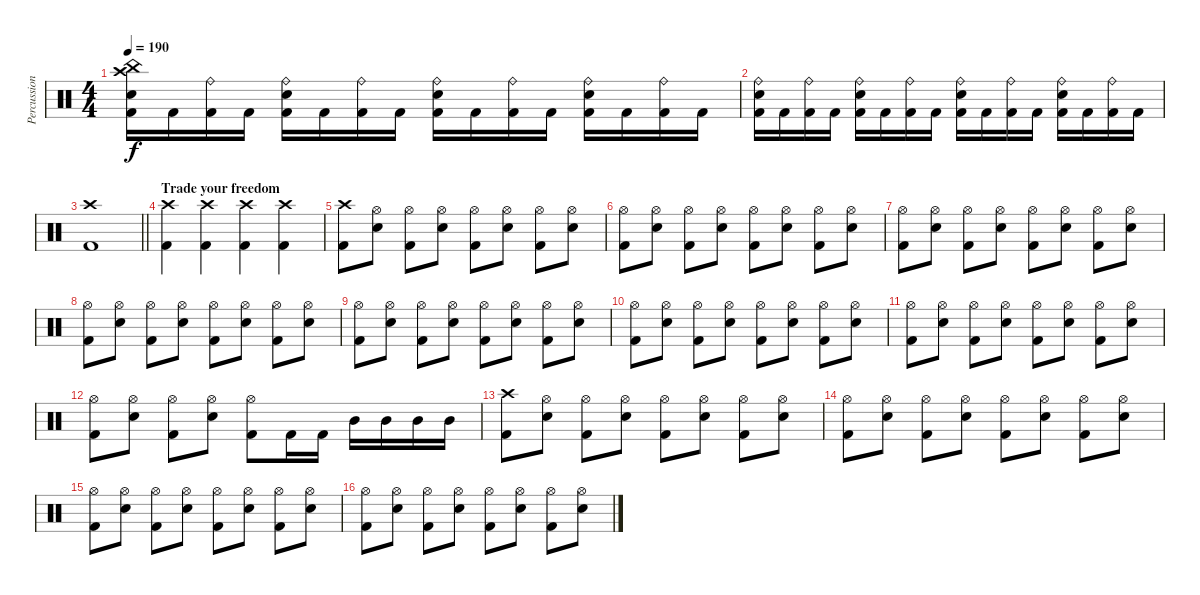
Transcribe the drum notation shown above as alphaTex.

\track ("Percussion" "Percussion") {instrument percussion}
\staff {score}
\articulation defaults
\ts (4 4)
\tempo 190
\clef neutral
\ks c
("China (hit)" "Crash high (hit)" "Snare (hit) 2" "Kick (hit) 2").16{dy f} "Kick (hit) 2".16 ("Ride (bell)" "Kick (hit) 2").16 "Kick (hit) 2".16 ("Ride (bell)" "Snare (hit) 2" "Kick (hit) 2").16 "Kick (hit) 2".16 ("Ride (bell)" "Kick (hit) 2").16 "Kick (hit) 2".16 ("Ride (bell)" "Snare (hit) 2" "Kick (hit) 2").16 "Kick (hit) 2".16 ("Ride (bell)" "Kick (hit) 2").16 "Kick (hit) 2".16 ("Ride (bell)" "Snare (hit) 2" "Kick (hit) 2").16 "Kick (hit) 2".16 ("Ride (bell)" "Kick (hit) 2").16 "Kick (hit) 2".16 |
("Ride (bell)" "Snare (hit) 2" "Kick (hit) 2").16 "Kick (hit) 2".16 ("Ride (bell)" "Kick (hit) 2").16 "Kick (hit) 2".16 ("Ride (bell)" "Snare (hit) 2" "Kick (hit) 2").16 "Kick (hit) 2".16 ("Ride (bell)" "Kick (hit) 2").16 "Kick (hit) 2".16 ("Ride (bell)" "Snare (hit) 2" "Kick (hit) 2").16 "Kick (hit) 2".16 ("Ride (bell)" "Kick (hit) 2").16 "Kick (hit) 2".16 ("Ride (bell)" "Snare (hit) 2" "Kick (hit) 2").16 "Kick (hit) 2".16 ("Ride (bell)" "Kick (hit) 2").16 "Kick (hit) 2".16 |
\barLineRight lightlight
("Crash high (hit)" "Kick (hit) 2").1 |
\section ("" "Trade your freedom")
("Crash high (hit)" "Kick (hit) 2").4 ("Crash high (hit)" "Kick (hit) 2").4 ("Crash high (hit)" "Kick (hit) 2").4 ("Crash high (hit)" "Kick (hit) 2").4 |
("Crash high (hit)" "Kick (hit) 2").8 ("Hi-Hat (open)" "Snare (hit) 2").8 ("Hi-Hat (open)" "Kick (hit) 2").8 ("Hi-Hat (open)" "Snare (hit) 2").8 ("Hi-Hat (open)" "Kick (hit) 2").8 ("Hi-Hat (open)" "Snare (hit) 2").8 ("Hi-Hat (open)" "Kick (hit) 2").8 ("Hi-Hat (open)" "Snare (hit) 2").8 |
("Hi-Hat (open)" "Kick (hit) 2").8 ("Hi-Hat (open)" "Snare (hit) 2").8 ("Hi-Hat (open)" "Kick (hit) 2").8 ("Hi-Hat (open)" "Snare (hit) 2").8 ("Hi-Hat (open)" "Kick (hit) 2").8 ("Hi-Hat (open)" "Snare (hit) 2").8 ("Hi-Hat (open)" "Kick (hit) 2").8 ("Hi-Hat (open)" "Snare (hit) 2").8 |
("Hi-Hat (open)" "Kick (hit) 2").8 ("Hi-Hat (open)" "Snare (hit) 2").8 ("Hi-Hat (open)" "Kick (hit) 2").8 ("Hi-Hat (open)" "Snare (hit) 2").8 ("Hi-Hat (open)" "Kick (hit) 2").8 ("Hi-Hat (open)" "Snare (hit) 2").8 ("Hi-Hat (open)" "Kick (hit) 2").8 ("Hi-Hat (open)" "Snare (hit) 2").8 |
("Hi-Hat (open)" "Kick (hit) 2").8 ("Hi-Hat (open)" "Snare (hit) 2").8 ("Hi-Hat (open)" "Kick (hit) 2").8 ("Hi-Hat (open)" "Snare (hit) 2").8 ("Hi-Hat (open)" "Kick (hit) 2").8 ("Hi-Hat (open)" "Snare (hit) 2").8 ("Hi-Hat (open)" "Kick (hit) 2").8 ("Hi-Hat (open)" "Snare (hit) 2").8 |
("Hi-Hat (open)" "Kick (hit) 2").8 ("Hi-Hat (open)" "Snare (hit) 2").8 ("Hi-Hat (open)" "Kick (hit) 2").8 ("Hi-Hat (open)" "Snare (hit) 2").8 ("Hi-Hat (open)" "Kick (hit) 2").8 ("Hi-Hat (open)" "Snare (hit) 2").8 ("Hi-Hat (open)" "Kick (hit) 2").8 ("Hi-Hat (open)" "Snare (hit) 2").8 |
("Hi-Hat (open)" "Kick (hit) 2").8 ("Hi-Hat (open)" "Snare (hit) 2").8 ("Hi-Hat (open)" "Kick (hit) 2").8 ("Hi-Hat (open)" "Snare (hit) 2").8 ("Hi-Hat (open)" "Kick (hit) 2").8 ("Hi-Hat (open)" "Snare (hit) 2").8 ("Hi-Hat (open)" "Kick (hit) 2").8 ("Hi-Hat (open)" "Snare (hit) 2").8 |
("Hi-Hat (open)" "Kick (hit) 2").8 ("Hi-Hat (open)" "Snare (hit) 2").8 ("Hi-Hat (open)" "Kick (hit) 2").8 ("Hi-Hat (open)" "Snare (hit) 2").8 ("Hi-Hat (open)" "Kick (hit) 2").8 ("Hi-Hat (open)" "Snare (hit) 2").8 ("Hi-Hat (open)" "Kick (hit) 2").8 ("Hi-Hat (open)" "Snare (hit) 2").8 |
("Hi-Hat (open)" "Kick (hit) 2").8 ("Hi-Hat (open)" "Snare (hit) 2").8 ("Hi-Hat (open)" "Kick (hit) 2").8 ("Hi-Hat (open)" "Snare (hit) 2").8 ("Hi-Hat (open)" "Kick (hit) 2").8 "Kick (hit) 2".16 "Kick (hit) 2".16 "Mid Tom (hit)".16 "Mid Tom (hit)".16 "Mid Tom (hit)".16 "Mid Tom (hit)".16 |
("Crash high (hit)" "Kick (hit) 2").8 ("Hi-Hat (open)" "Snare (hit) 2").8 ("Hi-Hat (open)" "Kick (hit) 2").8 ("Hi-Hat (open)" "Snare (hit) 2").8 ("Hi-Hat (open)" "Kick (hit) 2").8 ("Hi-Hat (open)" "Snare (hit) 2").8 ("Hi-Hat (open)" "Kick (hit) 2").8 ("Hi-Hat (open)" "Snare (hit) 2").8 |
("Hi-Hat (open)" "Kick (hit) 2").8 ("Hi-Hat (open)" "Snare (hit) 2").8 ("Hi-Hat (open)" "Kick (hit) 2").8 ("Hi-Hat (open)" "Snare (hit) 2").8 ("Hi-Hat (open)" "Kick (hit) 2").8 ("Hi-Hat (open)" "Snare (hit) 2").8 ("Hi-Hat (open)" "Kick (hit) 2").8 ("Hi-Hat (open)" "Snare (hit) 2").8 |
("Hi-Hat (open)" "Kick (hit) 2").8 ("Hi-Hat (open)" "Snare (hit) 2").8 ("Hi-Hat (open)" "Kick (hit) 2").8 ("Hi-Hat (open)" "Snare (hit) 2").8 ("Hi-Hat (open)" "Kick (hit) 2").8 ("Hi-Hat (open)" "Snare (hit) 2").8 ("Hi-Hat (open)" "Kick (hit) 2").8 ("Hi-Hat (open)" "Snare (hit) 2").8 |
("Hi-Hat (open)" "Kick (hit) 2").8 ("Hi-Hat (open)" "Snare (hit) 2").8 ("Hi-Hat (open)" "Kick (hit) 2").8 ("Hi-Hat (open)" "Snare (hit) 2").8 ("Hi-Hat (open)" "Kick (hit) 2").8 ("Hi-Hat (open)" "Snare (hit) 2").8 ("Hi-Hat (open)" "Kick (hit) 2").8 ("Hi-Hat (open)" "Snare (hit) 2").8
